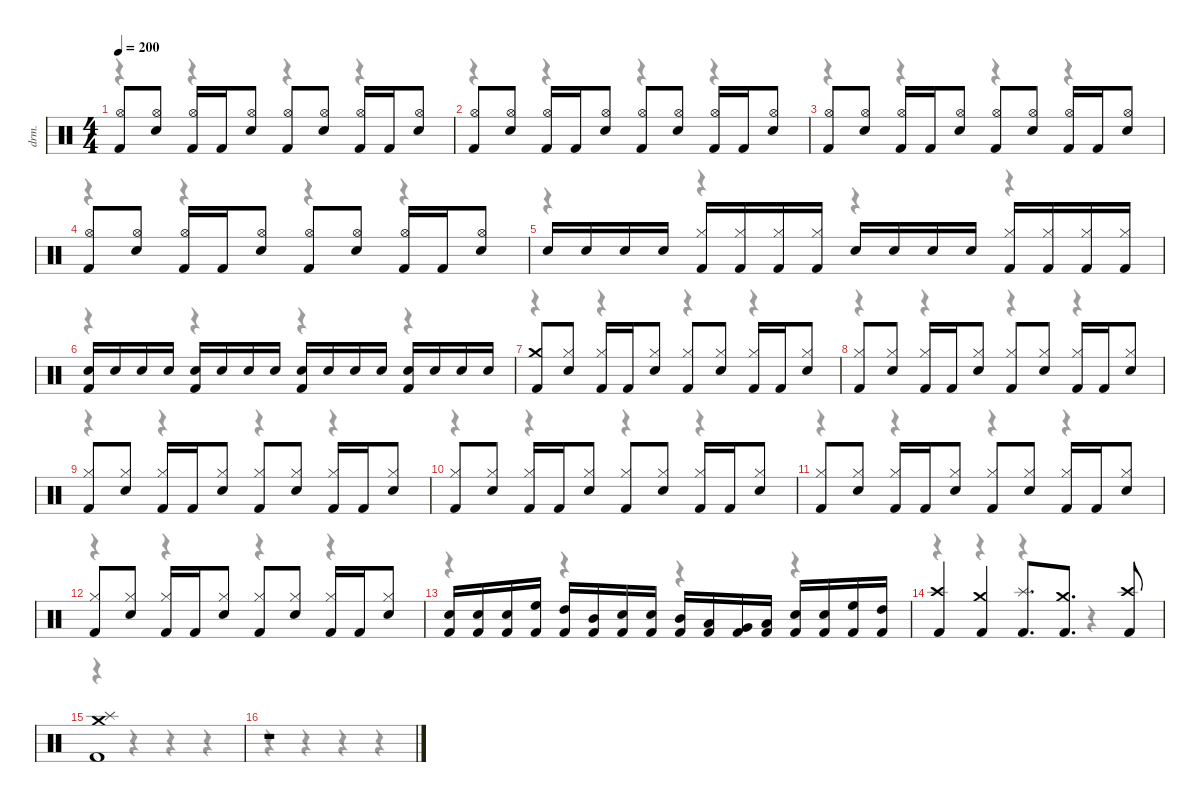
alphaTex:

\defaultSystemsLayout 4
\hideDynamics
\bracketExtendMode nobrackets
\otherSystemsTrackNameOrientation horizontal
\track ("David Mackintosh (Drums)" "drm.") {instrument percussion}
\staff {score}
\articulation defaults
\voice
\ts (4 4)
\tempo 200
\clef neutral
\ks c
("Kick (hit) 2" "Hi-Hat (open)").8{dy f} ("Snare (hit) 2" "Hi-Hat (open)").8 ("Kick (hit) 2" "Hi-Hat (open)").16 "Kick (hit) 2".16 ("Snare (hit) 2" "Hi-Hat (open)").8 ("Kick (hit) 2" "Hi-Hat (open)").8 ("Snare (hit) 2" "Hi-Hat (open)").8 ("Kick (hit) 2" "Hi-Hat (open)").16 "Kick (hit) 2".16 ("Snare (hit) 2" "Hi-Hat (open)").8 |
("Kick (hit) 2" "Hi-Hat (open)").8 ("Snare (hit) 2" "Hi-Hat (open)").8 ("Kick (hit) 2" "Hi-Hat (open)").16 "Kick (hit) 2".16 ("Snare (hit) 2" "Hi-Hat (open)").8 ("Kick (hit) 2" "Hi-Hat (open)").8 ("Snare (hit) 2" "Hi-Hat (open)").8 ("Kick (hit) 2" "Hi-Hat (open)").16 "Kick (hit) 2".16 ("Snare (hit) 2" "Hi-Hat (open)").8 |
("Kick (hit) 2" "Hi-Hat (open)").8 ("Snare (hit) 2" "Hi-Hat (open)").8 ("Kick (hit) 2" "Hi-Hat (open)").16 "Kick (hit) 2".16 ("Snare (hit) 2" "Hi-Hat (open)").8 ("Kick (hit) 2" "Hi-Hat (open)").8 ("Snare (hit) 2" "Hi-Hat (open)").8 ("Kick (hit) 2" "Hi-Hat (open)").16 "Kick (hit) 2".16 ("Snare (hit) 2" "Hi-Hat (open)").8 |
("Kick (hit) 2" "Hi-Hat (open)").8 ("Snare (hit) 2" "Hi-Hat (open)").8 ("Kick (hit) 2" "Hi-Hat (open)").16 "Kick (hit) 2".16 ("Snare (hit) 2" "Hi-Hat (open)").8 ("Kick (hit) 2" "Hi-Hat (open)").8 ("Snare (hit) 2" "Hi-Hat (open)").8 ("Kick (hit) 2" "Hi-Hat (open)").16 "Kick (hit) 2".16 ("Snare (hit) 2" "Hi-Hat (open)").8 |
"Snare (hit) 2".16 "Snare (hit) 2".16 "Snare (hit) 2".16 "Snare (hit) 2".16 ("Kick (hit) 2" "Hi-Hat (closed)").16 ("Kick (hit) 2" "Hi-Hat (closed)").16 ("Kick (hit) 2" "Hi-Hat (closed)").16 ("Kick (hit) 2" "Hi-Hat (closed)").16 "Snare (hit) 2".16 "Snare (hit) 2".16 "Snare (hit) 2".16 "Snare (hit) 2".16 ("Kick (hit) 2" "Hi-Hat (closed)").16 ("Kick (hit) 2" "Hi-Hat (closed)").16 ("Kick (hit) 2" "Hi-Hat (closed)").16 ("Kick (hit) 2" "Hi-Hat (closed)").16 |
("Kick (hit) 2" "Snare (hit) 2").16{dy ff} "Snare (hit) 2".16{dy f} "Snare (hit) 2".16 "Snare (hit) 2".16 ("Kick (hit) 2" "Snare (hit) 2").16{dy ff} "Snare (hit) 2".16{dy f} "Snare (hit) 2".16 "Snare (hit) 2".16 ("Kick (hit) 2" "Snare (hit) 2").16{dy ff} "Snare (hit) 2".16{dy f} "Snare (hit) 2".16 "Snare (hit) 2".16 ("Kick (hit) 2" "Snare (hit) 2").16{dy ff} "Snare (hit) 2".16{dy f} "Snare (hit) 2".16 "Snare (hit) 2".16 |
("Kick (hit) 2" "Crash medium (hit)").8 ("Snare (hit) 2" "Hi-Hat (closed)").8 ("Kick (hit) 2" "Hi-Hat (closed)").16 "Kick (hit) 2".16 ("Snare (hit) 2" "Hi-Hat (closed)").8 ("Kick (hit) 2" "Hi-Hat (closed)").8 ("Snare (hit) 2" "Hi-Hat (closed)").8 ("Kick (hit) 2" "Hi-Hat (closed)").16 "Kick (hit) 2".16 ("Snare (hit) 2" "Hi-Hat (closed)").8 |
("Kick (hit) 2" "Hi-Hat (closed)").8 ("Snare (hit) 2" "Hi-Hat (closed)").8 ("Kick (hit) 2" "Hi-Hat (closed)").16 "Kick (hit) 2".16 ("Snare (hit) 2" "Hi-Hat (closed)").8 ("Kick (hit) 2" "Hi-Hat (closed)").8 ("Snare (hit) 2" "Hi-Hat (closed)").8 ("Kick (hit) 2" "Hi-Hat (closed)").16 "Kick (hit) 2".16 ("Snare (hit) 2" "Hi-Hat (closed)").8 |
("Kick (hit) 2" "Hi-Hat (closed)").8 ("Snare (hit) 2" "Hi-Hat (closed)").8 ("Kick (hit) 2" "Hi-Hat (closed)").16 "Kick (hit) 2".16 ("Snare (hit) 2" "Hi-Hat (closed)").8 ("Kick (hit) 2" "Hi-Hat (closed)").8 ("Snare (hit) 2" "Hi-Hat (closed)").8 ("Kick (hit) 2" "Hi-Hat (closed)").16 "Kick (hit) 2".16 ("Snare (hit) 2" "Hi-Hat (closed)").8 |
("Kick (hit) 2" "Hi-Hat (closed)").8 ("Snare (hit) 2" "Hi-Hat (closed)").8 ("Kick (hit) 2" "Hi-Hat (closed)").16 "Kick (hit) 2".16 ("Snare (hit) 2" "Hi-Hat (closed)").8 ("Kick (hit) 2" "Hi-Hat (closed)").8 ("Snare (hit) 2" "Hi-Hat (closed)").8 ("Kick (hit) 2" "Hi-Hat (closed)").16 "Kick (hit) 2".16 ("Snare (hit) 2" "Hi-Hat (closed)").8 |
("Kick (hit) 2" "Hi-Hat (closed)").8 ("Snare (hit) 2" "Hi-Hat (closed)").8 ("Kick (hit) 2" "Hi-Hat (closed)").16 "Kick (hit) 2".16 ("Snare (hit) 2" "Hi-Hat (closed)").8 ("Kick (hit) 2" "Hi-Hat (closed)").8 ("Snare (hit) 2" "Hi-Hat (closed)").8 ("Kick (hit) 2" "Hi-Hat (closed)").16 "Kick (hit) 2".16 ("Snare (hit) 2" "Hi-Hat (closed)").8 |
("Kick (hit) 2" "Hi-Hat (closed)").8 ("Snare (hit) 2" "Hi-Hat (closed)").8 ("Kick (hit) 2" "Hi-Hat (closed)").16 "Kick (hit) 2".16 ("Snare (hit) 2" "Hi-Hat (closed)").8 ("Kick (hit) 2" "Hi-Hat (closed)").8 ("Snare (hit) 2" "Hi-Hat (closed)").8 ("Kick (hit) 2" "Hi-Hat (closed)").16 "Kick (hit) 2".16 ("Snare (hit) 2" "Hi-Hat (closed)").8 |
("Kick (hit) 2" "Snare (hit) 2").16 ("Kick (hit) 2" "Snare (hit) 2").16 ("Kick (hit) 2" "Snare (hit) 2").16 ("Kick (hit) 2" "High Floor Tom (hit)").16 ("Kick (hit) 2" "High Tom (hit)").16 ("Kick (hit) 2" "Mid Tom (hit)").16 ("Kick (hit) 2" "Snare (hit) 2").16 ("Kick (hit) 2" "Snare (hit) 2").16 ("Kick (hit) 2" "Mid Tom (hit)").16 ("Kick (hit) 2" "Low Tom (hit)").16 ("Kick (hit) 2" "Very Low Tom (hit)").16 ("Kick (hit) 2" "Low Floor Tom (hit)").16 ("Kick (hit) 2" "Snare (hit) 2").16 ("Kick (hit) 2" "Snare (hit) 2").16 ("Kick (hit) 2" "High Floor Tom (hit)").16 ("Kick (hit) 2" "High Tom (hit)").16 |
("Kick (hit) 2" "Crash high (hit)").4 ("Kick (hit) 2" "Crash medium (hit)").4 ("Kick (hit) 2" "Splash (hit)").8{d} ("Kick (hit) 2" "Crash medium (hit)").8{d} ("Kick (hit) 2" "Crash high (hit)").8 |
("Kick (hit) 2" "Splash (hit)" "Crash medium (hit)").1 |
r.1
\voice
\clef neutral
\ottava regular
\simile none
\ks c
r.4{dy mf} r.4 r.4 r.4 |
r.4 r.4 r.4 r.4 |
r.4 r.4 r.4 r.4 |
r.4 r.4 r.4 r.4 |
r.4 r.4 r.4 r.4 |
r.4 r.4 r.4 r.4 |
r.4 r.4 r.4 r.4 |
r.4 r.4 r.4 r.4 |
r.4 r.4 r.4 r.4 |
r.4 r.4 r.4 r.4 |
r.4 r.4 r.4 r.4 |
r.4 r.4 r.4 r.4 |
r.4 r.4 r.4 r.4 |
r.4 r.4 r.4 r.4 |
r.4 r.4 r.4 r.4 |
r.4 r.4 r.4 r.4
